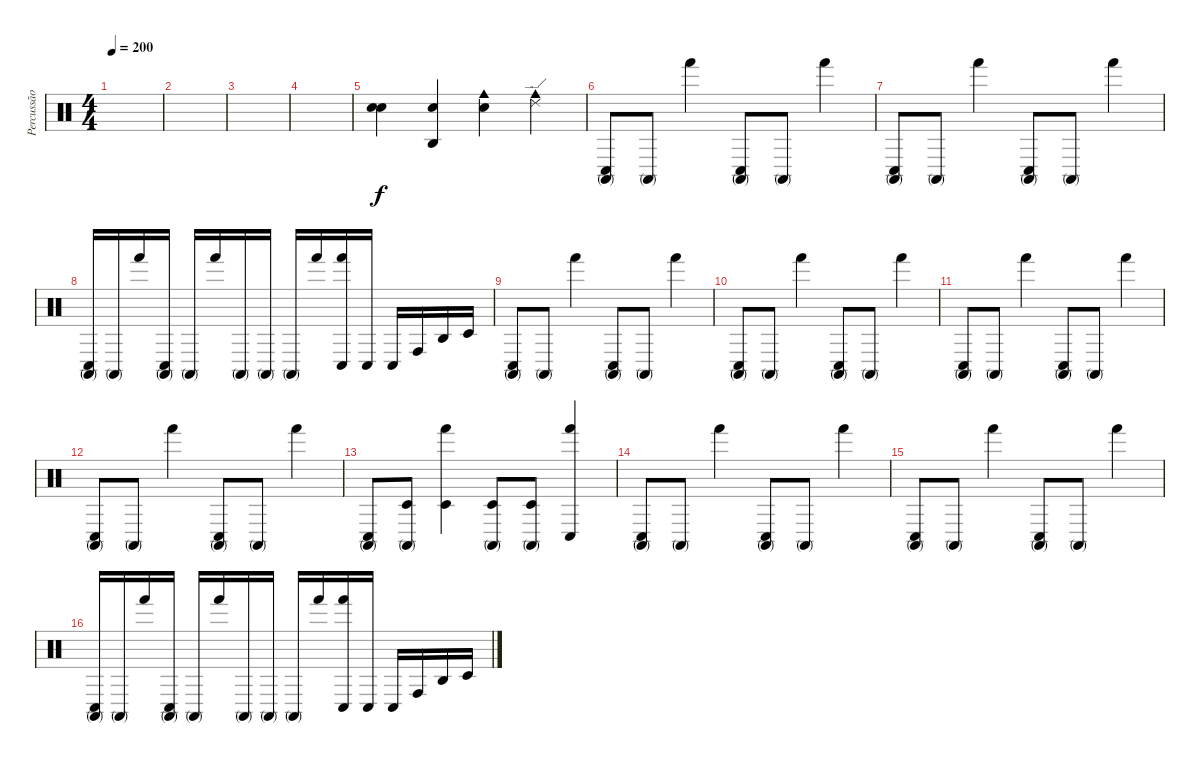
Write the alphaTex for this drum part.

\track ("Percussão" "Percussão") {instrument percussion}
\staff {score}
\articulation defaults
\ts (4 4)
\tempo 200
\clef neutral
\ks c
|
|
|
|
("Metronome (bell)" "Snare (hit)").4 ("Snare (hit)" "Agogo high (hit)").4 ("Snare (hit)" "Cowbell medium (hit)").4 ("Ride (edge) 2" "Cowbell medium (hit)").4 |
("Conga high (mute)" "Conga low (hit)").8 "Conga high (mute)".8 "Hand (hit)".4 ("Conga high (mute)" "Conga low (hit)").8 "Conga high (mute)".8 "Hand (hit)".4 |
("Conga high (mute)" "Conga low (hit)").8 "Conga high (mute)".8 "Hand (hit)".4 ("Conga high (mute)" "Conga low (hit)").8 "Conga high (mute)".8 "Hand (hit)".4 |
("Conga high (mute)" "Conga low (hit)").16 "Conga high (mute)".16 "Hand (hit)".16 ("Conga high (mute)" "Conga low (hit)").16 "Conga high (mute)".16 "Hand (hit)".16 "Conga high (mute)".16 "Conga high (mute)".16 "Conga high (mute)".16 "Hand (hit)".16 ("Conga low (hit)" "Hand (hit)").16 "Conga low (hit)".16 "Conga low (hit)".16 "Conga high (hit)".16 "Agogo high (hit)".16 "Timbale low (hit)".16 |
("Conga high (mute)" "Conga low (hit)").8 "Conga high (mute)".8 "Hand (hit)".4 ("Conga high (mute)" "Conga low (hit)").8 "Conga high (mute)".8 "Hand (hit)".4 |
("Conga high (mute)" "Conga low (hit)").8 "Conga high (mute)".8 "Hand (hit)".4 ("Conga high (mute)" "Conga low (hit)").8 "Conga high (mute)".8 "Hand (hit)".4 |
("Conga high (mute)" "Conga low (hit)").8 "Conga high (mute)".8 "Hand (hit)".4 ("Conga high (mute)" "Conga low (hit)").8 "Conga high (mute)".8 "Hand (hit)".4 |
("Conga high (mute)" "Conga low (hit)").8 "Conga high (mute)".8 "Hand (hit)".4 ("Conga high (mute)" "Conga low (hit)").8 "Conga high (mute)".8 "Hand (hit)".4 |
("Conga high (mute)" "Conga low (hit)").8 ("Conga high (mute)" "Timbale low (hit)").8 ("Hand (hit)" "Timbale low (hit)").4 ("Conga high (mute)" "Timbale low (hit)").8 ("Conga high (mute)" "Timbale low (hit)").8 ("Hand (hit)" "Conga low (hit)").4 |
("Conga high (mute)" "Conga low (hit)").8 "Conga high (mute)".8 "Hand (hit)".4 ("Conga high (mute)" "Conga low (hit)").8 "Conga high (mute)".8 "Hand (hit)".4 |
("Conga high (mute)" "Conga low (hit)").8 "Conga high (mute)".8 "Hand (hit)".4 ("Conga high (mute)" "Conga low (hit)").8 "Conga high (mute)".8 "Hand (hit)".4 |
("Conga high (mute)" "Conga low (hit)").16 "Conga high (mute)".16 "Hand (hit)".16 ("Conga high (mute)" "Conga low (hit)").16 "Conga high (mute)".16 "Hand (hit)".16 "Conga high (mute)".16 "Conga high (mute)".16 "Conga high (mute)".16 "Hand (hit)".16 ("Conga low (hit)" "Hand (hit)").16 "Conga low (hit)".16 "Conga low (hit)".16 "Conga high (hit)".16 "Agogo high (hit)".16 "Timbale low (hit)".16
